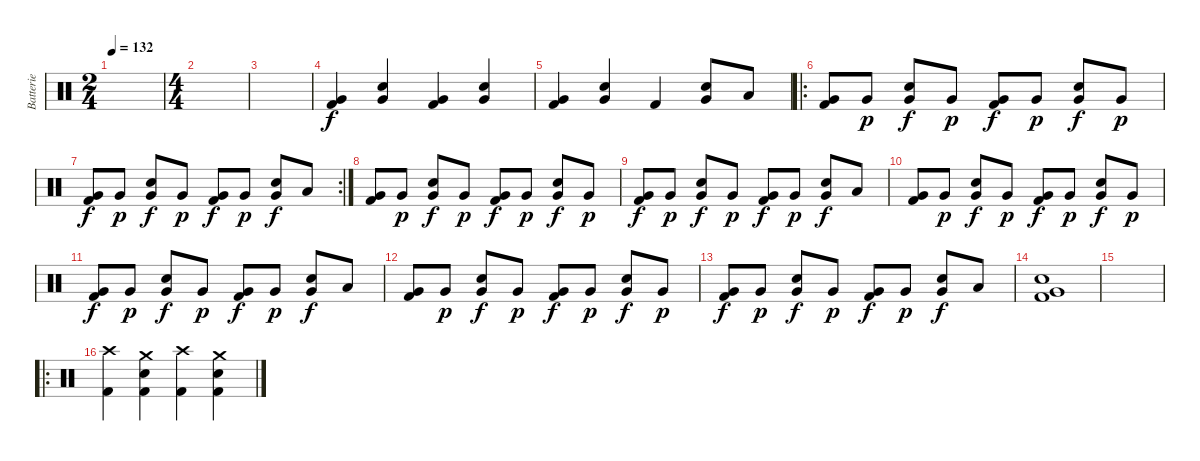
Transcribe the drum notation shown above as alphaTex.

\track ("Batterie" "Batterie") {instrument percussion}
\staff {score}
\articulation defaults
\ts (2 4)
\tempo 132
\clef neutral
\ks c
|
\ts (4 4)
|
|
("Very Low Tom (hit)" "Kick (hit) 2").4 ("Electric Snare (hit)" "Very Low Tom (hit)").4 ("Very Low Tom (hit)" "Kick (hit) 2").4 ("Electric Snare (hit)" "Very Low Tom (hit)").4 |
("Very Low Tom (hit)" "Kick (hit) 2").4 ("Electric Snare (hit)" "Very Low Tom (hit)").4 "Kick (hit) 2".4 ("Electric Snare (hit)" "Very Low Tom (hit)").8 "Low Tom (hit)".8 |
\ro
("Very Low Tom (hit)" "Kick (hit) 2").8 "Very Low Tom (hit)".8{dy p} ("Electric Snare (hit)" "Very Low Tom (hit)").8{dy f} "Very Low Tom (hit)".8{dy p} ("Very Low Tom (hit)" "Kick (hit) 2").8{dy f} "Very Low Tom (hit)".8{dy p} ("Electric Snare (hit)" "Very Low Tom (hit)").8{dy f} "Very Low Tom (hit)".8{dy p} |
\rc 2
("Very Low Tom (hit)" "Kick (hit) 2").8{dy f} "Very Low Tom (hit)".8{dy p} ("Electric Snare (hit)" "Very Low Tom (hit)").8{dy f} "Very Low Tom (hit)".8{dy p} ("Very Low Tom (hit)" "Kick (hit) 2").8{dy f} "Very Low Tom (hit)".8{dy p} ("Electric Snare (hit)" "Very Low Tom (hit)").8{dy f} "Low Tom (hit)".8 |
("Very Low Tom (hit)" "Kick (hit) 2").8 "Very Low Tom (hit)".8{dy p} ("Electric Snare (hit)" "Very Low Tom (hit)").8{dy f} "Very Low Tom (hit)".8{dy p} ("Very Low Tom (hit)" "Kick (hit) 2").8{dy f} "Very Low Tom (hit)".8{dy p} ("Electric Snare (hit)" "Very Low Tom (hit)").8{dy f} "Very Low Tom (hit)".8{dy p} |
("Very Low Tom (hit)" "Kick (hit) 2").8{dy f} "Very Low Tom (hit)".8{dy p} ("Electric Snare (hit)" "Very Low Tom (hit)").8{dy f} "Very Low Tom (hit)".8{dy p} ("Very Low Tom (hit)" "Kick (hit) 2").8{dy f} "Very Low Tom (hit)".8{dy p} ("Electric Snare (hit)" "Very Low Tom (hit)").8{dy f} "Low Tom (hit)".8 |
("Very Low Tom (hit)" "Kick (hit) 2").8 "Very Low Tom (hit)".8{dy p} ("Electric Snare (hit)" "Very Low Tom (hit)").8{dy f} "Very Low Tom (hit)".8{dy p} ("Very Low Tom (hit)" "Kick (hit) 2").8{dy f} "Very Low Tom (hit)".8{dy p} ("Electric Snare (hit)" "Very Low Tom (hit)").8{dy f} "Very Low Tom (hit)".8{dy p} |
("Very Low Tom (hit)" "Kick (hit) 2").8{dy f} "Very Low Tom (hit)".8{dy p} ("Electric Snare (hit)" "Very Low Tom (hit)").8{dy f} "Very Low Tom (hit)".8{dy p} ("Very Low Tom (hit)" "Kick (hit) 2").8{dy f} "Very Low Tom (hit)".8{dy p} ("Electric Snare (hit)" "Very Low Tom (hit)").8{dy f} "Low Tom (hit)".8 |
("Very Low Tom (hit)" "Kick (hit) 2").8 "Very Low Tom (hit)".8{dy p} ("Electric Snare (hit)" "Very Low Tom (hit)").8{dy f} "Very Low Tom (hit)".8{dy p} ("Very Low Tom (hit)" "Kick (hit) 2").8{dy f} "Very Low Tom (hit)".8{dy p} ("Electric Snare (hit)" "Very Low Tom (hit)").8{dy f} "Very Low Tom (hit)".8{dy p} |
("Very Low Tom (hit)" "Kick (hit) 2").8{dy f} "Very Low Tom (hit)".8{dy p} ("Electric Snare (hit)" "Very Low Tom (hit)").8{dy f} "Very Low Tom (hit)".8{dy p} ("Very Low Tom (hit)" "Kick (hit) 2").8{dy f} "Very Low Tom (hit)".8{dy p} ("Electric Snare (hit)" "Very Low Tom (hit)").8{dy f} "Low Tom (hit)".8 |
("Electric Snare (hit)" "Very Low Tom (hit)" "Kick (hit) 2").1 |
|
\ro
("Crash high (hit)" "Kick (hit) 2").4 ("Crash medium (hit)" "Electric Snare (hit)" "Kick (hit) 2").4 ("Crash high (hit)" "Kick (hit) 2").4 ("Crash medium (hit)" "Electric Snare (hit)" "Kick (hit) 2").4
